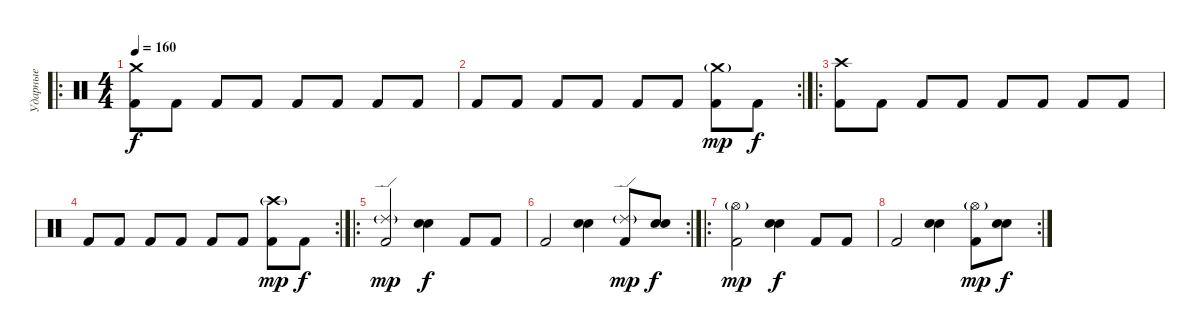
\track ("Ударные" "Ударные") {instrument percussion}
\staff {score}
\articulation defaults
\ro
\ts (4 4)
\tempo 160
\clef neutral
\ks c
("Crash medium (hit)" "Kick (hit) 2").8{dy f} "Kick (hit) 2".8 "Kick (hit) 2".8 "Kick (hit) 2".8 "Kick (hit) 2".8 "Kick (hit) 2".8 "Kick (hit) 2".8 "Kick (hit) 2".8 |
\rc 2 "Kick (hit) 2".8 "Kick (hit) 2".8 "Kick (hit) 2".8 "Kick (hit) 2".8 "Kick (hit) 2".8 "Kick (hit) 2".8
("Kick (hit) 2" "Crash medium (hit)"{g}).8{dy mp} "Kick (hit) 2".8{dy f} |
\ro
("Crash high (hit)" "Kick (hit) 2").8 "Kick (hit) 2".8 "Kick (hit) 2".8 "Kick (hit) 2".8 "Kick (hit) 2".8 "Kick (hit) 2".8 "Kick (hit) 2".8 "Kick (hit) 2".8 |
\rc 2 "Kick (hit) 2".8 "Kick (hit) 2".8 "Kick (hit) 2".8 "Kick (hit) 2".8 "Kick (hit) 2".8 "Kick (hit) 2".8
("Kick (hit) 2" "Crash high (hit)"{g}).8{dy mp} "Kick (hit) 2".8{dy f} |
\ro
("Kick (hit) 2" "Ride (edge) 2"{g}).2{dy mp} ("Electric Snare (hit)" "Snare (hit) 2").4{dy f} "Kick (hit) 2".8 "Kick (hit) 2".8 |
\rc 2 "Kick (hit) 2".2
("Electric Snare (hit)" "Snare (hit) 2").4 ("Kick (hit) 2" "Ride (edge) 2"{g}).8{dy mp} ("Electric Snare (hit)" "Snare (hit) 2").8{dy f} |
\ro
("Kick (hit) 2" "Hi-Hat (open)"{g}).2{dy mp} ("Electric Snare (hit)" "Snare (hit) 2").4{dy f} "Kick (hit) 2".8 "Kick (hit) 2".8 |
\rc 2 "Kick (hit) 2".2
("Electric Snare (hit)" "Snare (hit) 2").4 ("Kick (hit) 2" "Hi-Hat (open)"{g}).8{dy mp} ("Electric Snare (hit)" "Snare (hit) 2").8{dy f}
